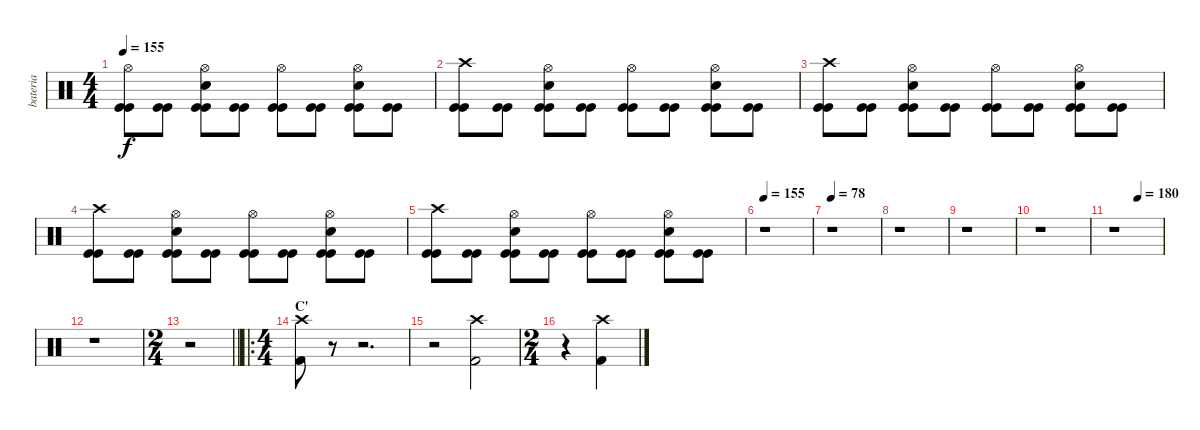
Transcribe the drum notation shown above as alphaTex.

\track ("bateria" "bateria") {instrument percussion}
\staff {score}
\articulation defaults
\ts (4 4)
\tempo 155
\clef neutral
\ks c
("Hi-Hat (open)" "Kick (hit)" "Kick (hit)").8{dy f} ("Kick (hit)" "Kick (hit)").8 ("Hi-Hat (open)" "Snare (hit) 2" "Kick (hit)" "Kick (hit)").8 ("Kick (hit)" "Kick (hit)").8 ("Hi-Hat (open)" "Kick (hit)" "Kick (hit)").8 ("Kick (hit)" "Kick (hit)").8 ("Hi-Hat (open)" "Snare (hit) 2" "Kick (hit)" "Kick (hit)").8 ("Kick (hit)" "Kick (hit)").8 |
("Crash high (hit)" "Kick (hit)" "Kick (hit)").8 ("Kick (hit)" "Kick (hit)").8 ("Hi-Hat (open)" "Snare (hit) 2" "Kick (hit)" "Kick (hit)").8 ("Kick (hit)" "Kick (hit)").8 ("Hi-Hat (open)" "Kick (hit)" "Kick (hit)").8 ("Kick (hit)" "Kick (hit)").8 ("Hi-Hat (open)" "Snare (hit) 2" "Kick (hit)" "Kick (hit)").8 ("Kick (hit)" "Kick (hit)").8 |
("Crash high (hit)" "Kick (hit)" "Kick (hit)").8 ("Kick (hit)" "Kick (hit)").8 ("Hi-Hat (open)" "Snare (hit) 2" "Kick (hit)" "Kick (hit)").8 ("Kick (hit)" "Kick (hit)").8 ("Hi-Hat (open)" "Kick (hit)" "Kick (hit)").8 ("Kick (hit)" "Kick (hit)").8 ("Hi-Hat (open)" "Snare (hit) 2" "Kick (hit)" "Kick (hit)").8 ("Kick (hit)" "Kick (hit)").8 |
("Crash high (hit)" "Kick (hit)" "Kick (hit)").8 ("Kick (hit)" "Kick (hit)").8 ("Hi-Hat (open)" "Snare (hit) 2" "Kick (hit)" "Kick (hit)").8 ("Kick (hit)" "Kick (hit)").8 ("Hi-Hat (open)" "Kick (hit)" "Kick (hit)").8 ("Kick (hit)" "Kick (hit)").8 ("Hi-Hat (open)" "Snare (hit) 2" "Kick (hit)" "Kick (hit)").8 ("Kick (hit)" "Kick (hit)").8 |
("Crash high (hit)" "Kick (hit)" "Kick (hit)").8 ("Kick (hit)" "Kick (hit)").8 ("Hi-Hat (open)" "Snare (hit) 2" "Kick (hit)" "Kick (hit)").8 ("Kick (hit)" "Kick (hit)").8 ("Hi-Hat (open)" "Kick (hit)" "Kick (hit)").8 ("Kick (hit)" "Kick (hit)").8 ("Hi-Hat (open)" "Snare (hit) 2" "Kick (hit)" "Kick (hit)").8 ("Kick (hit)" "Kick (hit)").8 |
\tempo 155
r.1 |
\tempo 78
r.1 |
r.1 |
r.1 |
r.1 |
\tempo (180 0.5)
r.1 |
r.1 |
\ts (2 4)
\barLineRight lightlight
r.2 |
\ro
\ts (4 4)
\section ("" "C'")
("Crash high (hit)" "Kick (hit) 2").8{volume 13} r.8 r.2{d} |
r.2 ("Crash high (hit)" "Kick (hit) 2").2 |
\ts (2 4)
r.4 ("Crash high (hit)" "Kick (hit) 2").4
